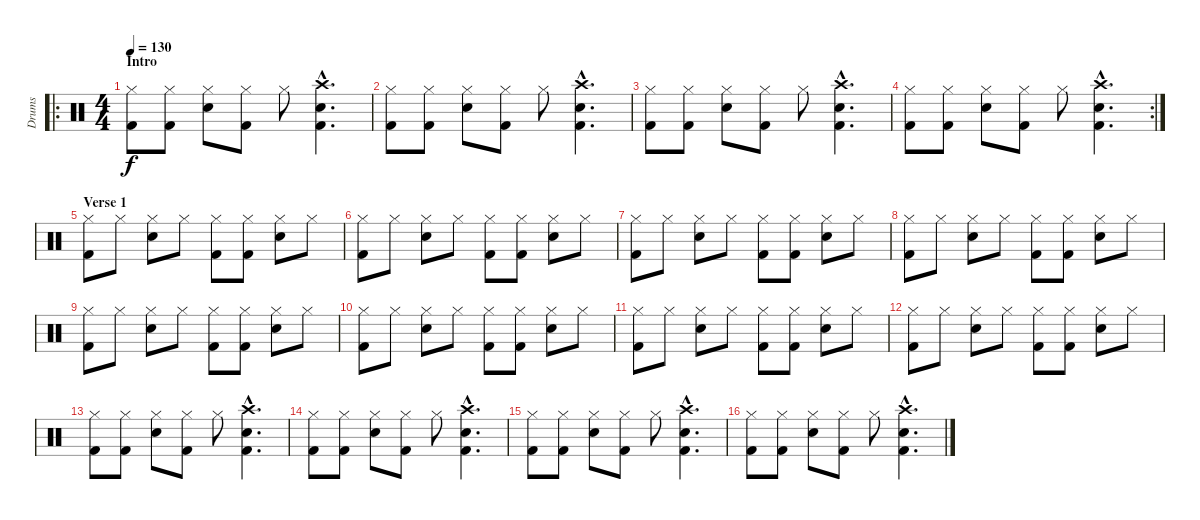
\track ("Drums" "Drums") {instrument percussion}
\staff {score}
\articulation defaults
\ro
\ts (4 4)
\section ("" "Intro")
\tempo 130
\clef neutral
\ks c
("Kick (hit) 2" "Hi-Hat (closed)").8{dy f} ("Kick (hit) 2" "Hi-Hat (closed)").8 ("Electric Snare (hit)" "Hi-Hat (closed)").8 ("Kick (hit) 2" "Hi-Hat (closed)").8 "Hi-Hat (closed)".8 ("Kick (hit) 2"{hac} "Electric Snare (hit)"{hac} "Crash high (hit)"{hac}).4{d} |
("Kick (hit) 2" "Hi-Hat (closed)").8 ("Kick (hit) 2" "Hi-Hat (closed)").8 ("Electric Snare (hit)" "Hi-Hat (closed)").8 ("Kick (hit) 2" "Hi-Hat (closed)").8 "Hi-Hat (closed)".8 ("Kick (hit) 2"{hac} "Electric Snare (hit)"{hac} "Crash high (hit)"{hac}).4{d} |
("Kick (hit) 2" "Hi-Hat (closed)").8 ("Kick (hit) 2" "Hi-Hat (closed)").8 ("Electric Snare (hit)" "Hi-Hat (closed)").8 ("Kick (hit) 2" "Hi-Hat (closed)").8 "Hi-Hat (closed)".8 ("Kick (hit) 2"{hac} "Electric Snare (hit)"{hac} "Crash high (hit)"{hac}).4{d} |
\rc 2
("Kick (hit) 2" "Hi-Hat (closed)").8 ("Kick (hit) 2" "Hi-Hat (closed)").8 ("Electric Snare (hit)" "Hi-Hat (closed)").8 ("Kick (hit) 2" "Hi-Hat (closed)").8 "Hi-Hat (closed)".8 ("Kick (hit) 2"{hac} "Electric Snare (hit)"{hac} "Crash high (hit)"{hac}).4{d} |
\section ("" "Verse 1")
("Kick (hit) 2" "Hi-Hat (closed)").8 "Hi-Hat (closed)".8 ("Electric Snare (hit)" "Hi-Hat (closed)").8 "Hi-Hat (closed)".8 ("Kick (hit) 2" "Hi-Hat (closed)").8 ("Kick (hit) 2" "Hi-Hat (closed)").8 ("Electric Snare (hit)" "Hi-Hat (closed)").8 "Hi-Hat (closed)".8 |
("Kick (hit) 2" "Hi-Hat (closed)").8 "Hi-Hat (closed)".8 ("Electric Snare (hit)" "Hi-Hat (closed)").8 "Hi-Hat (closed)".8 ("Kick (hit) 2" "Hi-Hat (closed)").8 ("Kick (hit) 2" "Hi-Hat (closed)").8 ("Electric Snare (hit)" "Hi-Hat (closed)").8 "Hi-Hat (closed)".8 |
("Kick (hit) 2" "Hi-Hat (closed)").8 "Hi-Hat (closed)".8 ("Electric Snare (hit)" "Hi-Hat (closed)").8 "Hi-Hat (closed)".8 ("Kick (hit) 2" "Hi-Hat (closed)").8 ("Kick (hit) 2" "Hi-Hat (closed)").8 ("Electric Snare (hit)" "Hi-Hat (closed)").8 "Hi-Hat (closed)".8 |
("Kick (hit) 2" "Hi-Hat (closed)").8 "Hi-Hat (closed)".8 ("Electric Snare (hit)" "Hi-Hat (closed)").8 "Hi-Hat (closed)".8 ("Kick (hit) 2" "Hi-Hat (closed)").8 ("Kick (hit) 2" "Hi-Hat (closed)").8 ("Electric Snare (hit)" "Hi-Hat (closed)").8 "Hi-Hat (closed)".8 |
("Kick (hit) 2" "Hi-Hat (closed)").8 "Hi-Hat (closed)".8 ("Electric Snare (hit)" "Hi-Hat (closed)").8 "Hi-Hat (closed)".8 ("Kick (hit) 2" "Hi-Hat (closed)").8 ("Kick (hit) 2" "Hi-Hat (closed)").8 ("Electric Snare (hit)" "Hi-Hat (closed)").8 "Hi-Hat (closed)".8 |
("Kick (hit) 2" "Hi-Hat (closed)").8 "Hi-Hat (closed)".8 ("Electric Snare (hit)" "Hi-Hat (closed)").8 "Hi-Hat (closed)".8 ("Kick (hit) 2" "Hi-Hat (closed)").8 ("Kick (hit) 2" "Hi-Hat (closed)").8 ("Electric Snare (hit)" "Hi-Hat (closed)").8 "Hi-Hat (closed)".8 |
("Kick (hit) 2" "Hi-Hat (closed)").8 "Hi-Hat (closed)".8 ("Electric Snare (hit)" "Hi-Hat (closed)").8 "Hi-Hat (closed)".8 ("Kick (hit) 2" "Hi-Hat (closed)").8 ("Kick (hit) 2" "Hi-Hat (closed)").8 ("Electric Snare (hit)" "Hi-Hat (closed)").8 "Hi-Hat (closed)".8 |
("Kick (hit) 2" "Hi-Hat (closed)").8 "Hi-Hat (closed)".8 ("Electric Snare (hit)" "Hi-Hat (closed)").8 "Hi-Hat (closed)".8 ("Kick (hit) 2" "Hi-Hat (closed)").8 ("Kick (hit) 2" "Hi-Hat (closed)").8 ("Electric Snare (hit)" "Hi-Hat (closed)").8 "Hi-Hat (closed)".8 |
("Kick (hit) 2" "Hi-Hat (closed)").8 ("Kick (hit) 2" "Hi-Hat (closed)").8 ("Electric Snare (hit)" "Hi-Hat (closed)").8 ("Kick (hit) 2" "Hi-Hat (closed)").8 "Hi-Hat (closed)".8 ("Kick (hit) 2"{hac} "Electric Snare (hit)"{hac} "Crash high (hit)"{hac}).4{d} |
("Kick (hit) 2" "Hi-Hat (closed)").8 ("Kick (hit) 2" "Hi-Hat (closed)").8 ("Electric Snare (hit)" "Hi-Hat (closed)").8 ("Kick (hit) 2" "Hi-Hat (closed)").8 "Hi-Hat (closed)".8 ("Kick (hit) 2"{hac} "Electric Snare (hit)"{hac} "Crash high (hit)"{hac}).4{d} |
("Kick (hit) 2" "Hi-Hat (closed)").8 ("Kick (hit) 2" "Hi-Hat (closed)").8 ("Electric Snare (hit)" "Hi-Hat (closed)").8 ("Kick (hit) 2" "Hi-Hat (closed)").8 "Hi-Hat (closed)".8 ("Kick (hit) 2"{hac} "Electric Snare (hit)"{hac} "Crash high (hit)"{hac}).4{d} |
("Kick (hit) 2" "Hi-Hat (closed)").8 ("Kick (hit) 2" "Hi-Hat (closed)").8 ("Electric Snare (hit)" "Hi-Hat (closed)").8 ("Kick (hit) 2" "Hi-Hat (closed)").8 "Hi-Hat (closed)".8 ("Kick (hit) 2"{hac} "Electric Snare (hit)"{hac} "Crash high (hit)"{hac}).4{d}
